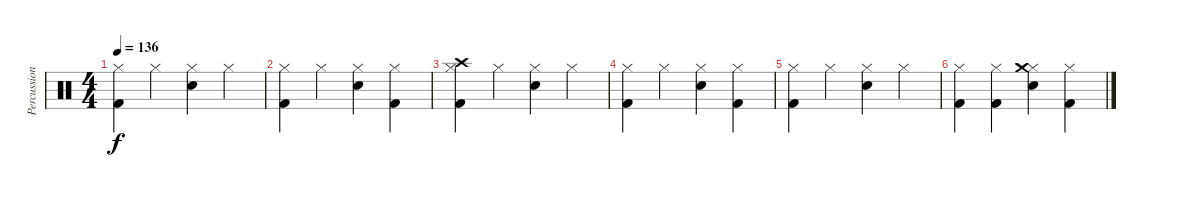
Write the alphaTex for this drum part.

\track ("Percussion" "Percussion") {instrument percussion}
\staff {score}
\articulation defaults
\ts (4 4)
\tempo 136
\clef neutral
\ks c
("Hi-Hat (closed)" "Kick (hit) 2").4{dy f} "Hi-Hat (closed)".4 ("Hi-Hat (closed)" "Electric Snare (hit)").4 "Hi-Hat (closed)".4 |
("Hi-Hat (closed)" "Kick (hit) 2").4 "Hi-Hat (closed)".4 ("Hi-Hat (closed)" "Electric Snare (hit)").4 ("Hi-Hat (closed)" "Kick (hit) 2").4 |
("Hi-Hat (closed)" "Crash high (hit)" "Kick (hit) 2").4 "Hi-Hat (closed)".4 ("Hi-Hat (closed)" "Electric Snare (hit)").4 "Hi-Hat (closed)".4 |
("Hi-Hat (closed)" "Kick (hit) 2").4 "Hi-Hat (closed)".4 ("Hi-Hat (closed)" "Electric Snare (hit)").4 ("Hi-Hat (closed)" "Kick (hit) 2").4 |
("Hi-Hat (closed)" "Kick (hit) 2").4 "Hi-Hat (closed)".4 ("Hi-Hat (closed)" "Electric Snare (hit)").4 "Hi-Hat (closed)".4 |
("Hi-Hat (closed)" "Kick (hit) 2").4 ("Hi-Hat (closed)" "Kick (hit) 2").4 ("Hi-Hat (closed)" "Crash medium (hit)" "Electric Snare (hit)").4 ("Hi-Hat (closed)" "Kick (hit) 2").4
